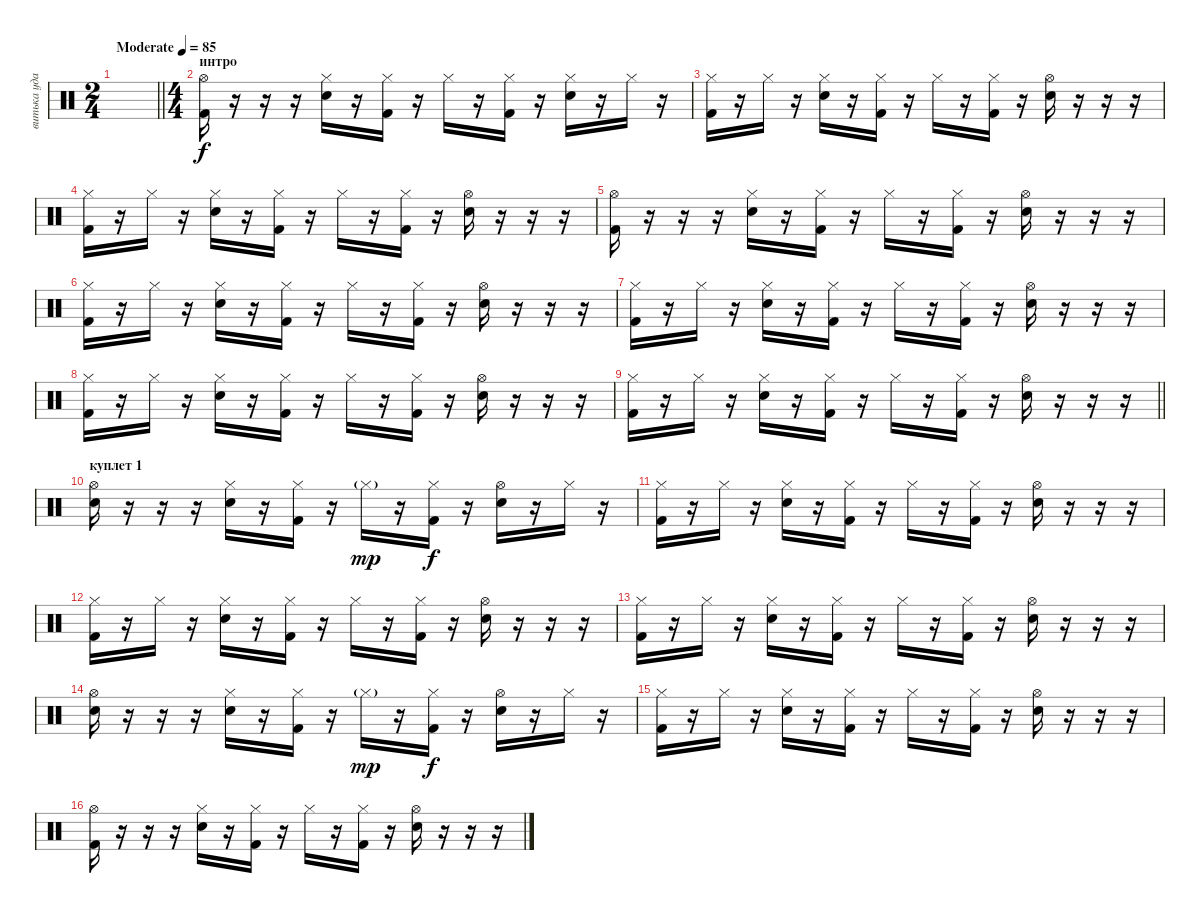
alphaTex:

\track ("витька ударные" "витька уда") {instrument percussion}
\staff {score}
\articulation defaults
\ts (2 4)
\tempo (85 "Moderate")
\clef neutral
\barLineRight lightlight
\ks c
|
\ts (4 4)
\section ("" "интро")
("Kick (hit) 2" "Hi-Hat (open)").16 r.16 r.16 r.16 ("Snare (hit) 2" "Hi-Hat (closed)").16 r.16 ("Kick (hit) 2" "Hi-Hat (closed)").16 r.16 "Hi-Hat (closed)".16 r.16 ("Kick (hit) 2" "Hi-Hat (closed)").16 r.16 ("Snare (hit) 2" "Hi-Hat (closed)").16 r.16 "Hi-Hat (closed)".16 r.16 |
("Kick (hit) 2" "Hi-Hat (closed)").16 r.16 "Hi-Hat (closed)".16 r.16 ("Snare (hit) 2" "Hi-Hat (closed)").16 r.16 ("Kick (hit) 2" "Hi-Hat (closed)").16 r.16 "Hi-Hat (closed)".16 r.16 ("Kick (hit) 2" "Hi-Hat (closed)").16 r.16 ("Snare (hit) 2" "Hi-Hat (open)").16 r.16 r.16 r.16 |
("Kick (hit) 2" "Hi-Hat (closed)").16 r.16 "Hi-Hat (closed)".16 r.16 ("Snare (hit) 2" "Hi-Hat (closed)").16 r.16 ("Kick (hit) 2" "Hi-Hat (closed)").16 r.16 "Hi-Hat (closed)".16 r.16 ("Kick (hit) 2" "Hi-Hat (closed)").16 r.16 ("Snare (hit) 2" "Hi-Hat (open)").16 r.16 r.16 r.16 |
("Kick (hit) 2" "Hi-Hat (open)").16 r.16 r.16 r.16 ("Snare (hit) 2" "Hi-Hat (closed)").16 r.16 ("Kick (hit) 2" "Hi-Hat (closed)").16 r.16 "Hi-Hat (closed)".16 r.16 ("Kick (hit) 2" "Hi-Hat (closed)").16 r.16 ("Snare (hit) 2" "Hi-Hat (open)").16 r.16 r.16 r.16 |
("Kick (hit) 2" "Hi-Hat (closed)").16 r.16 "Hi-Hat (closed)".16 r.16 ("Snare (hit) 2" "Hi-Hat (closed)").16 r.16 ("Kick (hit) 2" "Hi-Hat (closed)").16 r.16 "Hi-Hat (closed)".16 r.16 ("Kick (hit) 2" "Hi-Hat (closed)").16 r.16 ("Snare (hit) 2" "Hi-Hat (open)").16 r.16 r.16 r.16 |
("Kick (hit) 2" "Hi-Hat (closed)").16 r.16 "Hi-Hat (closed)".16 r.16 ("Snare (hit) 2" "Hi-Hat (closed)").16 r.16 ("Kick (hit) 2" "Hi-Hat (closed)").16 r.16 "Hi-Hat (closed)".16 r.16 ("Kick (hit) 2" "Hi-Hat (closed)").16 r.16 ("Snare (hit) 2" "Hi-Hat (open)").16 r.16 r.16 r.16 |
("Kick (hit) 2" "Hi-Hat (closed)").16 r.16 "Hi-Hat (closed)".16 r.16 ("Snare (hit) 2" "Hi-Hat (closed)").16 r.16 ("Kick (hit) 2" "Hi-Hat (closed)").16 r.16 "Hi-Hat (closed)".16 r.16 ("Kick (hit) 2" "Hi-Hat (closed)").16 r.16 ("Snare (hit) 2" "Hi-Hat (open)").16 r.16 r.16 r.16 |
\barLineRight lightlight
("Kick (hit) 2" "Hi-Hat (closed)").16 r.16 "Hi-Hat (closed)".16 r.16 ("Snare (hit) 2" "Hi-Hat (closed)").16 r.16 ("Kick (hit) 2" "Hi-Hat (closed)").16 r.16 "Hi-Hat (closed)".16 r.16 ("Kick (hit) 2" "Hi-Hat (closed)").16 r.16 ("Snare (hit) 2" "Hi-Hat (open)").16 r.16 r.16 r.16 |
\section ("" "куплет 1")
("Snare (hit) 2" "Hi-Hat (open)").16 r.16 r.16 r.16 ("Snare (hit) 2" "Hi-Hat (closed)").16 r.16 ("Kick (hit) 2" "Hi-Hat (closed)").16 r.16 "Hi-Hat (closed)"{g}.16{dy mp} r.16 ("Kick (hit) 2" "Hi-Hat (closed)").16{dy f} r.16 ("Snare (hit) 2" "Hi-Hat (open)").16 r.16 "Hi-Hat (closed)".16 r.16 |
("Kick (hit) 2" "Hi-Hat (closed)").16 r.16 "Hi-Hat (closed)".16 r.16 ("Snare (hit) 2" "Hi-Hat (closed)").16 r.16 ("Kick (hit) 2" "Hi-Hat (closed)").16 r.16 "Hi-Hat (closed)".16 r.16 ("Kick (hit) 2" "Hi-Hat (closed)").16 r.16 ("Snare (hit) 2" "Hi-Hat (open)").16 r.16 r.16 r.16 |
("Kick (hit) 2" "Hi-Hat (closed)").16 r.16 "Hi-Hat (closed)".16 r.16 ("Snare (hit) 2" "Hi-Hat (closed)").16 r.16 ("Kick (hit) 2" "Hi-Hat (closed)").16 r.16 "Hi-Hat (closed)".16 r.16 ("Kick (hit) 2" "Hi-Hat (closed)").16 r.16 ("Snare (hit) 2" "Hi-Hat (open)").16 r.16 r.16 r.16 |
("Kick (hit) 2" "Hi-Hat (closed)").16 r.16 "Hi-Hat (closed)".16 r.16 ("Snare (hit) 2" "Hi-Hat (closed)").16 r.16 ("Kick (hit) 2" "Hi-Hat (closed)").16 r.16 "Hi-Hat (closed)".16 r.16 ("Kick (hit) 2" "Hi-Hat (closed)").16 r.16 ("Snare (hit) 2" "Hi-Hat (open)").16 r.16 r.16 r.16 |
("Snare (hit) 2" "Hi-Hat (open)").16 r.16 r.16 r.16 ("Snare (hit) 2" "Hi-Hat (closed)").16 r.16 ("Kick (hit) 2" "Hi-Hat (closed)").16 r.16 "Hi-Hat (closed)"{g}.16{dy mp} r.16 ("Kick (hit) 2" "Hi-Hat (closed)").16{dy f} r.16 ("Snare (hit) 2" "Hi-Hat (open)").16 r.16 "Hi-Hat (closed)".16 r.16 |
("Kick (hit) 2" "Hi-Hat (closed)").16 r.16 "Hi-Hat (closed)".16 r.16 ("Snare (hit) 2" "Hi-Hat (closed)").16 r.16 ("Kick (hit) 2" "Hi-Hat (closed)").16 r.16 "Hi-Hat (closed)".16 r.16 ("Kick (hit) 2" "Hi-Hat (closed)").16 r.16 ("Snare (hit) 2" "Hi-Hat (open)").16 r.16 r.16 r.16 |
("Kick (hit) 2" "Hi-Hat (open)").16 r.16 r.16 r.16 ("Snare (hit) 2" "Hi-Hat (closed)").16 r.16 ("Kick (hit) 2" "Hi-Hat (closed)").16 r.16 "Hi-Hat (closed)".16 r.16 ("Kick (hit) 2" "Hi-Hat (closed)").16 r.16 ("Snare (hit) 2" "Hi-Hat (open)").16 r.16 r.16 r.16
